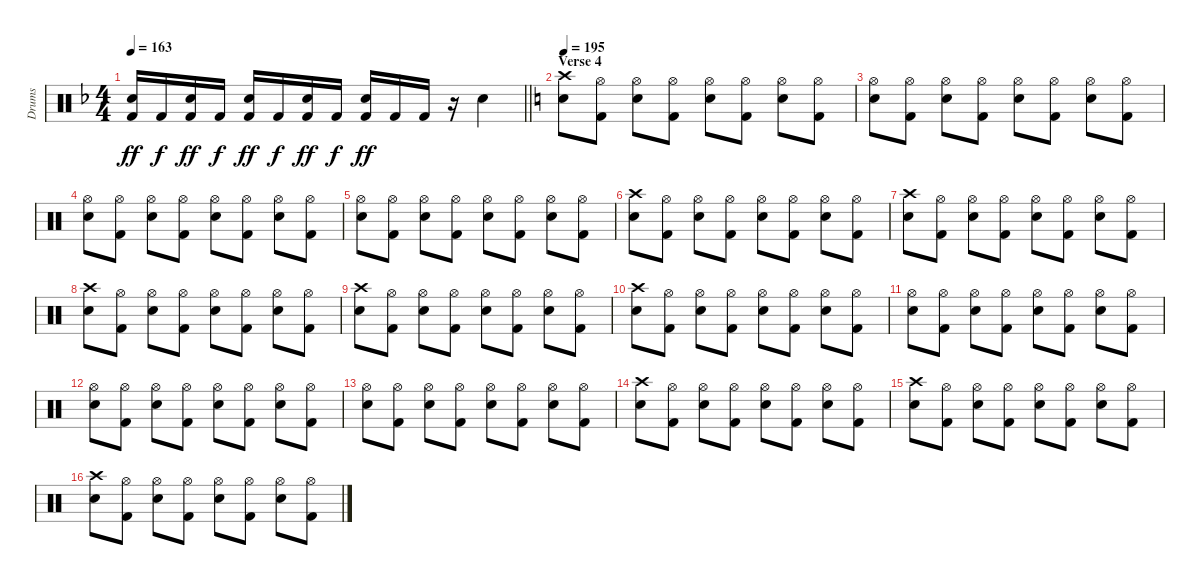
\track ("Drums" "Drums") {instrument percussion}
\staff {score}
\articulation defaults
\ts (4 4)
\tempo 163
\clef neutral
\barLineRight lightlight
\ks f
("Snare (hit) 2" "Kick (hit) 2").16{dy ff} "Kick (hit) 2".16{dy f} ("Snare (hit) 2" "Kick (hit) 2").16{dy ff} "Kick (hit) 2".16{dy f} ("Snare (hit) 2" "Kick (hit) 2").16{dy ff} "Kick (hit) 2".16{dy f} ("Snare (hit) 2" "Kick (hit) 2").16{dy ff} "Kick (hit) 2".16{dy f} ("Snare (hit) 2" "Kick (hit) 2").16{dy ff} "Kick (hit) 2".16 "Kick (hit) 2".16 r.16 "Snare (hit) 2".4 |
\section ("" "Verse 4")
\tempo 195
\ks c
("Crash high (hit)" "Snare (hit) 2").8{volume 14} ("Hi-Hat (open)" "Kick (hit) 2").8 ("Hi-Hat (open)" "Snare (hit) 2").8 ("Hi-Hat (open)" "Kick (hit) 2").8 ("Hi-Hat (open)" "Snare (hit) 2").8 ("Hi-Hat (open)" "Kick (hit) 2").8 ("Hi-Hat (open)" "Snare (hit) 2").8 ("Hi-Hat (open)" "Kick (hit) 2").8 |
("Hi-Hat (open)" "Snare (hit) 2").8 ("Hi-Hat (open)" "Kick (hit) 2").8 ("Hi-Hat (open)" "Snare (hit) 2").8 ("Hi-Hat (open)" "Kick (hit) 2").8 ("Hi-Hat (open)" "Snare (hit) 2").8 ("Hi-Hat (open)" "Kick (hit) 2").8 ("Hi-Hat (open)" "Snare (hit) 2").8 ("Hi-Hat (open)" "Kick (hit) 2").8 |
("Hi-Hat (open)" "Snare (hit) 2").8 ("Hi-Hat (open)" "Kick (hit) 2").8 ("Hi-Hat (open)" "Snare (hit) 2").8 ("Hi-Hat (open)" "Kick (hit) 2").8 ("Hi-Hat (open)" "Snare (hit) 2").8 ("Hi-Hat (open)" "Kick (hit) 2").8 ("Hi-Hat (open)" "Snare (hit) 2").8 ("Hi-Hat (open)" "Kick (hit) 2").8 |
("Hi-Hat (open)" "Snare (hit) 2").8 ("Hi-Hat (open)" "Kick (hit) 2").8 ("Hi-Hat (open)" "Snare (hit) 2").8 ("Hi-Hat (open)" "Kick (hit) 2").8 ("Hi-Hat (open)" "Snare (hit) 2").8 ("Hi-Hat (open)" "Kick (hit) 2").8 ("Hi-Hat (open)" "Snare (hit) 2").8 ("Hi-Hat (open)" "Kick (hit) 2").8 |
("Crash high (hit)" "Snare (hit) 2").8 ("Hi-Hat (open)" "Kick (hit) 2").8 ("Hi-Hat (open)" "Snare (hit) 2").8 ("Hi-Hat (open)" "Kick (hit) 2").8 ("Hi-Hat (open)" "Snare (hit) 2").8 ("Hi-Hat (open)" "Kick (hit) 2").8 ("Hi-Hat (open)" "Snare (hit) 2").8 ("Hi-Hat (open)" "Kick (hit) 2").8 |
("Crash high (hit)" "Snare (hit) 2").8 ("Hi-Hat (open)" "Kick (hit) 2").8 ("Hi-Hat (open)" "Snare (hit) 2").8 ("Hi-Hat (open)" "Kick (hit) 2").8 ("Hi-Hat (open)" "Snare (hit) 2").8 ("Hi-Hat (open)" "Kick (hit) 2").8 ("Hi-Hat (open)" "Snare (hit) 2").8 ("Hi-Hat (open)" "Kick (hit) 2").8 |
("Crash high (hit)" "Snare (hit) 2").8 ("Hi-Hat (open)" "Kick (hit) 2").8 ("Hi-Hat (open)" "Snare (hit) 2").8 ("Hi-Hat (open)" "Kick (hit) 2").8 ("Hi-Hat (open)" "Snare (hit) 2").8 ("Hi-Hat (open)" "Kick (hit) 2").8 ("Hi-Hat (open)" "Snare (hit) 2").8 ("Hi-Hat (open)" "Kick (hit) 2").8 |
("Crash high (hit)" "Snare (hit) 2").8 ("Hi-Hat (open)" "Kick (hit) 2").8 ("Hi-Hat (open)" "Snare (hit) 2").8 ("Hi-Hat (open)" "Kick (hit) 2").8 ("Hi-Hat (open)" "Snare (hit) 2").8 ("Hi-Hat (open)" "Kick (hit) 2").8 ("Hi-Hat (open)" "Snare (hit) 2").8 ("Hi-Hat (open)" "Kick (hit) 2").8 |
("Crash high (hit)" "Snare (hit) 2").8 ("Hi-Hat (open)" "Kick (hit) 2").8 ("Hi-Hat (open)" "Snare (hit) 2").8 ("Hi-Hat (open)" "Kick (hit) 2").8 ("Hi-Hat (open)" "Snare (hit) 2").8 ("Hi-Hat (open)" "Kick (hit) 2").8 ("Hi-Hat (open)" "Snare (hit) 2").8 ("Hi-Hat (open)" "Kick (hit) 2").8 |
("Hi-Hat (open)" "Snare (hit) 2").8 ("Hi-Hat (open)" "Kick (hit) 2").8 ("Hi-Hat (open)" "Snare (hit) 2").8 ("Hi-Hat (open)" "Kick (hit) 2").8 ("Hi-Hat (open)" "Snare (hit) 2").8 ("Hi-Hat (open)" "Kick (hit) 2").8 ("Hi-Hat (open)" "Snare (hit) 2").8 ("Hi-Hat (open)" "Kick (hit) 2").8 |
("Hi-Hat (open)" "Snare (hit) 2").8 ("Hi-Hat (open)" "Kick (hit) 2").8 ("Hi-Hat (open)" "Snare (hit) 2").8 ("Hi-Hat (open)" "Kick (hit) 2").8 ("Hi-Hat (open)" "Snare (hit) 2").8 ("Hi-Hat (open)" "Kick (hit) 2").8 ("Hi-Hat (open)" "Snare (hit) 2").8 ("Hi-Hat (open)" "Kick (hit) 2").8 |
("Hi-Hat (open)" "Snare (hit) 2").8 ("Hi-Hat (open)" "Kick (hit) 2").8 ("Hi-Hat (open)" "Snare (hit) 2").8 ("Hi-Hat (open)" "Kick (hit) 2").8 ("Hi-Hat (open)" "Snare (hit) 2").8 ("Hi-Hat (open)" "Kick (hit) 2").8 ("Hi-Hat (open)" "Snare (hit) 2").8 ("Hi-Hat (open)" "Kick (hit) 2").8 |
("Crash high (hit)" "Snare (hit) 2").8 ("Hi-Hat (open)" "Kick (hit) 2").8 ("Hi-Hat (open)" "Snare (hit) 2").8 ("Hi-Hat (open)" "Kick (hit) 2").8 ("Hi-Hat (open)" "Snare (hit) 2").8 ("Hi-Hat (open)" "Kick (hit) 2").8 ("Hi-Hat (open)" "Snare (hit) 2").8 ("Hi-Hat (open)" "Kick (hit) 2").8 |
("Crash high (hit)" "Snare (hit) 2").8 ("Hi-Hat (open)" "Kick (hit) 2").8 ("Hi-Hat (open)" "Snare (hit) 2").8 ("Hi-Hat (open)" "Kick (hit) 2").8 ("Hi-Hat (open)" "Snare (hit) 2").8 ("Hi-Hat (open)" "Kick (hit) 2").8 ("Hi-Hat (open)" "Snare (hit) 2").8 ("Hi-Hat (open)" "Kick (hit) 2").8 |
("Crash high (hit)" "Snare (hit) 2").8 ("Hi-Hat (open)" "Kick (hit) 2").8 ("Hi-Hat (open)" "Snare (hit) 2").8 ("Hi-Hat (open)" "Kick (hit) 2").8 ("Hi-Hat (open)" "Snare (hit) 2").8 ("Hi-Hat (open)" "Kick (hit) 2").8 ("Hi-Hat (open)" "Snare (hit) 2").8 ("Hi-Hat (open)" "Kick (hit) 2").8
